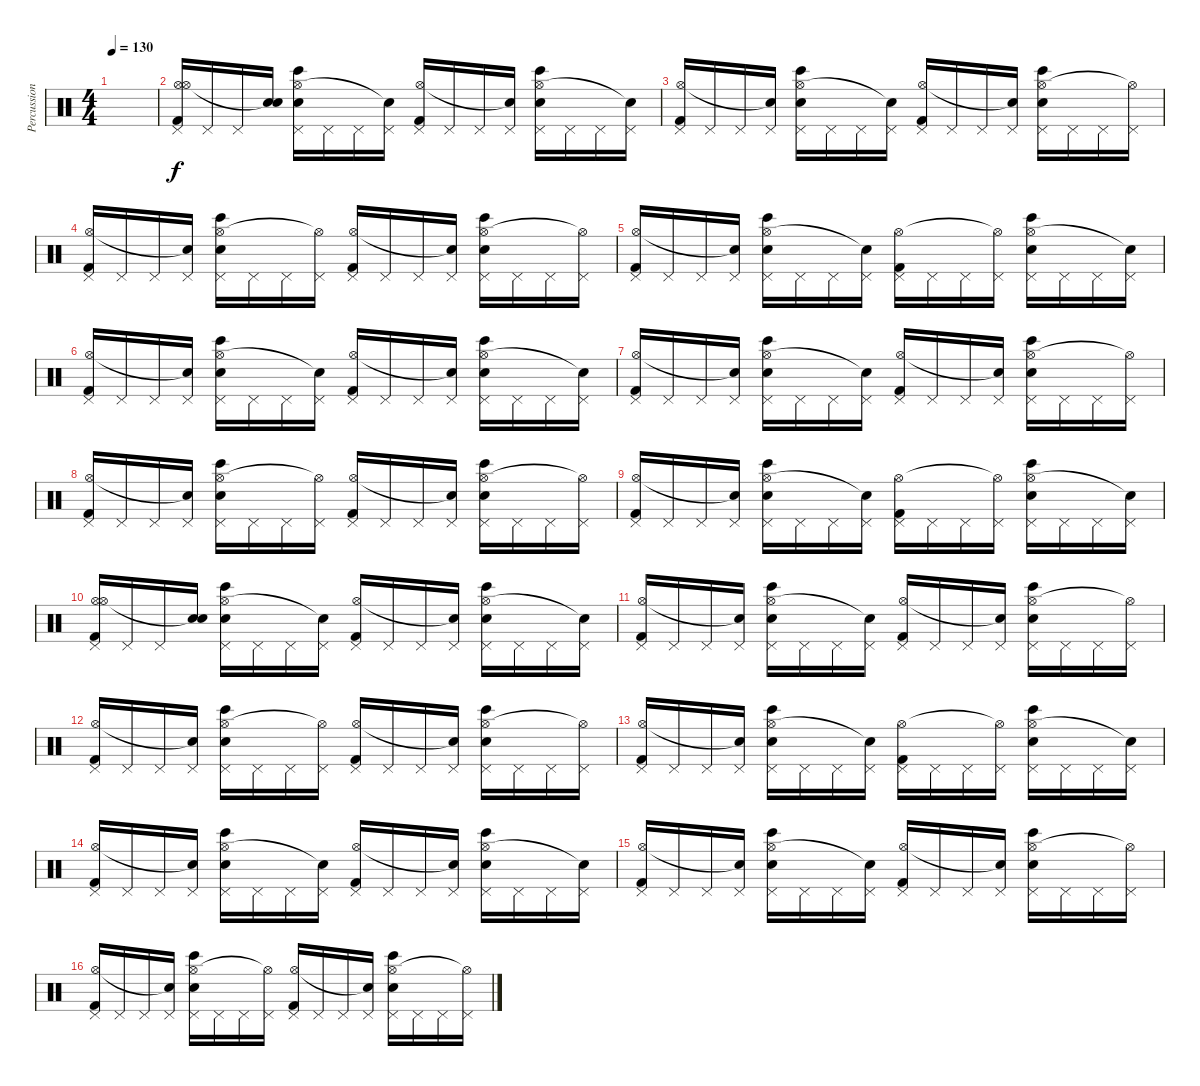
\track ("Percussion" "Percussion") {instrument percussion}
\staff {score}
\articulation defaults
\ts (4 4)
\tempo 130
\clef neutral
\ks c
|
("Pedal Hi-Hat (hit)" "Hi-Hat (open)" "Hi-Hat (open)" "Kick (hit) 2").16 "Pedal Hi-Hat (hit)".16 "Pedal Hi-Hat (hit)".16 ("Snare (hit)" "Snare (hit)"{t}).16 ("Pedal Hi-Hat (hit)" "Hi-Hat (open)" "Electric Snare (hit)" "Bongo High (hit)").16 "Pedal Hi-Hat (hit)".16 "Pedal Hi-Hat (hit)".16 ("Pedal Hi-Hat (hit)" "Snare (hit)"{t}).16 ("Pedal Hi-Hat (hit)" "Hi-Hat (open)" "Kick (hit) 2").16 "Pedal Hi-Hat (hit)".16 "Pedal Hi-Hat (hit)".16 ("Pedal Hi-Hat (hit)" "Snare (hit)"{t}).16 ("Pedal Hi-Hat (hit)" "Hi-Hat (open)" "Electric Snare (hit)" "Bongo High (hit)").16 "Pedal Hi-Hat (hit)".16 "Pedal Hi-Hat (hit)".16 ("Pedal Hi-Hat (hit)" "Snare (hit)"{t}).16 |
("Pedal Hi-Hat (hit)" "Hi-Hat (open)" "Kick (hit) 2").16 "Pedal Hi-Hat (hit)".16 "Pedal Hi-Hat (hit)".16 ("Pedal Hi-Hat (hit)" "Snare (hit)"{t}).16 ("Pedal Hi-Hat (hit)" "Hi-Hat (open)" "Electric Snare (hit)" "Bongo High (hit)").16 "Pedal Hi-Hat (hit)".16 "Pedal Hi-Hat (hit)".16 ("Pedal Hi-Hat (hit)" "Snare (hit)"{t}).16 ("Pedal Hi-Hat (hit)" "Hi-Hat (open)" "Kick (hit) 2").16 "Pedal Hi-Hat (hit)".16 "Pedal Hi-Hat (hit)".16 ("Pedal Hi-Hat (hit)" "Snare (hit)"{t}).16 ("Pedal Hi-Hat (hit)" "Hi-Hat (open)" "Electric Snare (hit)" "Bongo High (hit)").16 "Pedal Hi-Hat (hit)".16 "Pedal Hi-Hat (hit)".16 ("Pedal Hi-Hat (hit)" "Hi-Hat (open)"{t}).16 |
("Pedal Hi-Hat (hit)" "Hi-Hat (open)" "Kick (hit) 2").16 "Pedal Hi-Hat (hit)".16 "Pedal Hi-Hat (hit)".16 ("Pedal Hi-Hat (hit)" "Snare (hit)"{t}).16 ("Pedal Hi-Hat (hit)" "Hi-Hat (open)" "Electric Snare (hit)" "Bongo High (hit)").16 "Pedal Hi-Hat (hit)".16 "Pedal Hi-Hat (hit)".16 ("Pedal Hi-Hat (hit)" "Hi-Hat (open)"{t}).16 ("Pedal Hi-Hat (hit)" "Hi-Hat (open)" "Kick (hit) 2").16 "Pedal Hi-Hat (hit)".16 "Pedal Hi-Hat (hit)".16 ("Pedal Hi-Hat (hit)" "Snare (hit)"{t}).16 ("Pedal Hi-Hat (hit)" "Hi-Hat (open)" "Electric Snare (hit)" "Bongo High (hit)").16 "Pedal Hi-Hat (hit)".16 "Pedal Hi-Hat (hit)".16 ("Pedal Hi-Hat (hit)" "Hi-Hat (open)"{t}).16 |
("Pedal Hi-Hat (hit)" "Hi-Hat (open)" "Kick (hit) 2").16 "Pedal Hi-Hat (hit)".16 "Pedal Hi-Hat (hit)".16 ("Pedal Hi-Hat (hit)" "Snare (hit)"{t}).16 ("Pedal Hi-Hat (hit)" "Hi-Hat (open)" "Electric Snare (hit)" "Bongo High (hit)").16 "Pedal Hi-Hat (hit)".16 "Pedal Hi-Hat (hit)".16 ("Pedal Hi-Hat (hit)" "Snare (hit)"{t}).16 ("Pedal Hi-Hat (hit)" "Hi-Hat (open)" "Kick (hit) 2").16 "Pedal Hi-Hat (hit)".16 "Pedal Hi-Hat (hit)".16 ("Pedal Hi-Hat (hit)" "Hi-Hat (open)"{t}).16 ("Pedal Hi-Hat (hit)" "Hi-Hat (open)" "Electric Snare (hit)" "Bongo High (hit)").16 "Pedal Hi-Hat (hit)".16 "Pedal Hi-Hat (hit)".16 ("Pedal Hi-Hat (hit)" "Snare (hit)"{t}).16 |
("Pedal Hi-Hat (hit)" "Hi-Hat (open)" "Kick (hit) 2").16 "Pedal Hi-Hat (hit)".16 "Pedal Hi-Hat (hit)".16 ("Pedal Hi-Hat (hit)" "Snare (hit)"{t}).16 ("Pedal Hi-Hat (hit)" "Hi-Hat (open)" "Electric Snare (hit)" "Bongo High (hit)").16 "Pedal Hi-Hat (hit)".16 "Pedal Hi-Hat (hit)".16 ("Pedal Hi-Hat (hit)" "Snare (hit)"{t}).16 ("Pedal Hi-Hat (hit)" "Hi-Hat (open)" "Kick (hit) 2").16 "Pedal Hi-Hat (hit)".16 "Pedal Hi-Hat (hit)".16 ("Pedal Hi-Hat (hit)" "Snare (hit)"{t}).16 ("Pedal Hi-Hat (hit)" "Hi-Hat (open)" "Electric Snare (hit)" "Bongo High (hit)").16 "Pedal Hi-Hat (hit)".16 "Pedal Hi-Hat (hit)".16 ("Pedal Hi-Hat (hit)" "Snare (hit)"{t}).16 |
("Pedal Hi-Hat (hit)" "Hi-Hat (open)" "Kick (hit) 2").16 "Pedal Hi-Hat (hit)".16 "Pedal Hi-Hat (hit)".16 ("Pedal Hi-Hat (hit)" "Snare (hit)"{t}).16 ("Pedal Hi-Hat (hit)" "Hi-Hat (open)" "Electric Snare (hit)" "Bongo High (hit)").16 "Pedal Hi-Hat (hit)".16 "Pedal Hi-Hat (hit)".16 ("Pedal Hi-Hat (hit)" "Snare (hit)"{t}).16 ("Pedal Hi-Hat (hit)" "Hi-Hat (open)" "Kick (hit) 2").16 "Pedal Hi-Hat (hit)".16 "Pedal Hi-Hat (hit)".16 ("Pedal Hi-Hat (hit)" "Snare (hit)"{t}).16 ("Pedal Hi-Hat (hit)" "Hi-Hat (open)" "Electric Snare (hit)" "Bongo High (hit)").16 "Pedal Hi-Hat (hit)".16 "Pedal Hi-Hat (hit)".16 ("Pedal Hi-Hat (hit)" "Hi-Hat (open)"{t}).16 |
("Pedal Hi-Hat (hit)" "Hi-Hat (open)" "Kick (hit) 2").16 "Pedal Hi-Hat (hit)".16 "Pedal Hi-Hat (hit)".16 ("Pedal Hi-Hat (hit)" "Snare (hit)"{t}).16 ("Pedal Hi-Hat (hit)" "Hi-Hat (open)" "Electric Snare (hit)" "Bongo High (hit)").16 "Pedal Hi-Hat (hit)".16 "Pedal Hi-Hat (hit)".16 ("Pedal Hi-Hat (hit)" "Hi-Hat (open)"{t}).16 ("Pedal Hi-Hat (hit)" "Hi-Hat (open)" "Kick (hit) 2").16 "Pedal Hi-Hat (hit)".16 "Pedal Hi-Hat (hit)".16 ("Pedal Hi-Hat (hit)" "Snare (hit)"{t}).16 ("Pedal Hi-Hat (hit)" "Hi-Hat (open)" "Electric Snare (hit)" "Bongo High (hit)").16 "Pedal Hi-Hat (hit)".16 "Pedal Hi-Hat (hit)".16 ("Pedal Hi-Hat (hit)" "Hi-Hat (open)"{t}).16 |
("Pedal Hi-Hat (hit)" "Hi-Hat (open)" "Kick (hit) 2").16 "Pedal Hi-Hat (hit)".16 "Pedal Hi-Hat (hit)".16 ("Pedal Hi-Hat (hit)" "Snare (hit)"{t}).16 ("Pedal Hi-Hat (hit)" "Hi-Hat (open)" "Electric Snare (hit)" "Bongo High (hit)").16 "Pedal Hi-Hat (hit)".16 "Pedal Hi-Hat (hit)".16 ("Pedal Hi-Hat (hit)" "Snare (hit)"{t}).16 ("Pedal Hi-Hat (hit)" "Hi-Hat (open)" "Kick (hit) 2").16 "Pedal Hi-Hat (hit)".16 "Pedal Hi-Hat (hit)".16 ("Pedal Hi-Hat (hit)" "Hi-Hat (open)"{t}).16 ("Pedal Hi-Hat (hit)" "Hi-Hat (open)" "Electric Snare (hit)" "Bongo High (hit)").16 "Pedal Hi-Hat (hit)".16 "Pedal Hi-Hat (hit)".16 ("Pedal Hi-Hat (hit)" "Snare (hit)"{t}).16 |
("Pedal Hi-Hat (hit)" "Hi-Hat (open)" "Hi-Hat (open)" "Kick (hit) 2").16 "Pedal Hi-Hat (hit)".16 "Pedal Hi-Hat (hit)".16 ("Snare (hit)" "Snare (hit)"{t}).16 ("Pedal Hi-Hat (hit)" "Hi-Hat (open)" "Electric Snare (hit)" "Bongo High (hit)").16 "Pedal Hi-Hat (hit)".16 "Pedal Hi-Hat (hit)".16 ("Pedal Hi-Hat (hit)" "Snare (hit)"{t}).16 ("Pedal Hi-Hat (hit)" "Hi-Hat (open)" "Kick (hit) 2").16 "Pedal Hi-Hat (hit)".16 "Pedal Hi-Hat (hit)".16 ("Pedal Hi-Hat (hit)" "Snare (hit)"{t}).16 ("Pedal Hi-Hat (hit)" "Hi-Hat (open)" "Electric Snare (hit)" "Bongo High (hit)").16 "Pedal Hi-Hat (hit)".16 "Pedal Hi-Hat (hit)".16 ("Pedal Hi-Hat (hit)" "Snare (hit)"{t}).16 |
("Pedal Hi-Hat (hit)" "Hi-Hat (open)" "Kick (hit) 2").16 "Pedal Hi-Hat (hit)".16 "Pedal Hi-Hat (hit)".16 ("Pedal Hi-Hat (hit)" "Snare (hit)"{t}).16 ("Pedal Hi-Hat (hit)" "Hi-Hat (open)" "Electric Snare (hit)" "Bongo High (hit)").16 "Pedal Hi-Hat (hit)".16 "Pedal Hi-Hat (hit)".16 ("Pedal Hi-Hat (hit)" "Snare (hit)"{t}).16 ("Pedal Hi-Hat (hit)" "Hi-Hat (open)" "Kick (hit) 2").16 "Pedal Hi-Hat (hit)".16 "Pedal Hi-Hat (hit)".16 ("Pedal Hi-Hat (hit)" "Snare (hit)"{t}).16 ("Pedal Hi-Hat (hit)" "Hi-Hat (open)" "Electric Snare (hit)" "Bongo High (hit)").16 "Pedal Hi-Hat (hit)".16 "Pedal Hi-Hat (hit)".16 ("Pedal Hi-Hat (hit)" "Hi-Hat (open)"{t}).16 |
("Pedal Hi-Hat (hit)" "Hi-Hat (open)" "Kick (hit) 2").16 "Pedal Hi-Hat (hit)".16 "Pedal Hi-Hat (hit)".16 ("Pedal Hi-Hat (hit)" "Snare (hit)"{t}).16 ("Pedal Hi-Hat (hit)" "Hi-Hat (open)" "Electric Snare (hit)" "Bongo High (hit)").16 "Pedal Hi-Hat (hit)".16 "Pedal Hi-Hat (hit)".16 ("Pedal Hi-Hat (hit)" "Hi-Hat (open)"{t}).16 ("Pedal Hi-Hat (hit)" "Hi-Hat (open)" "Kick (hit) 2").16 "Pedal Hi-Hat (hit)".16 "Pedal Hi-Hat (hit)".16 ("Pedal Hi-Hat (hit)" "Snare (hit)"{t}).16 ("Pedal Hi-Hat (hit)" "Hi-Hat (open)" "Electric Snare (hit)" "Bongo High (hit)").16 "Pedal Hi-Hat (hit)".16 "Pedal Hi-Hat (hit)".16 ("Pedal Hi-Hat (hit)" "Hi-Hat (open)"{t}).16 |
("Pedal Hi-Hat (hit)" "Hi-Hat (open)" "Kick (hit) 2").16 "Pedal Hi-Hat (hit)".16 "Pedal Hi-Hat (hit)".16 ("Pedal Hi-Hat (hit)" "Snare (hit)"{t}).16 ("Pedal Hi-Hat (hit)" "Hi-Hat (open)" "Electric Snare (hit)" "Bongo High (hit)").16 "Pedal Hi-Hat (hit)".16 "Pedal Hi-Hat (hit)".16 ("Pedal Hi-Hat (hit)" "Snare (hit)"{t}).16 ("Pedal Hi-Hat (hit)" "Hi-Hat (open)" "Kick (hit) 2").16 "Pedal Hi-Hat (hit)".16 "Pedal Hi-Hat (hit)".16 ("Pedal Hi-Hat (hit)" "Hi-Hat (open)"{t}).16 ("Pedal Hi-Hat (hit)" "Hi-Hat (open)" "Electric Snare (hit)" "Bongo High (hit)").16 "Pedal Hi-Hat (hit)".16 "Pedal Hi-Hat (hit)".16 ("Pedal Hi-Hat (hit)" "Snare (hit)"{t}).16 |
("Pedal Hi-Hat (hit)" "Hi-Hat (open)" "Kick (hit) 2").16 "Pedal Hi-Hat (hit)".16 "Pedal Hi-Hat (hit)".16 ("Pedal Hi-Hat (hit)" "Snare (hit)"{t}).16 ("Pedal Hi-Hat (hit)" "Hi-Hat (open)" "Electric Snare (hit)" "Bongo High (hit)").16 "Pedal Hi-Hat (hit)".16 "Pedal Hi-Hat (hit)".16 ("Pedal Hi-Hat (hit)" "Snare (hit)"{t}).16 ("Pedal Hi-Hat (hit)" "Hi-Hat (open)" "Kick (hit) 2").16 "Pedal Hi-Hat (hit)".16 "Pedal Hi-Hat (hit)".16 ("Pedal Hi-Hat (hit)" "Snare (hit)"{t}).16 ("Pedal Hi-Hat (hit)" "Hi-Hat (open)" "Electric Snare (hit)" "Bongo High (hit)").16 "Pedal Hi-Hat (hit)".16 "Pedal Hi-Hat (hit)".16 ("Pedal Hi-Hat (hit)" "Snare (hit)"{t}).16 |
("Pedal Hi-Hat (hit)" "Hi-Hat (open)" "Kick (hit) 2").16 "Pedal Hi-Hat (hit)".16 "Pedal Hi-Hat (hit)".16 ("Pedal Hi-Hat (hit)" "Snare (hit)"{t}).16 ("Pedal Hi-Hat (hit)" "Hi-Hat (open)" "Electric Snare (hit)" "Bongo High (hit)").16 "Pedal Hi-Hat (hit)".16 "Pedal Hi-Hat (hit)".16 ("Pedal Hi-Hat (hit)" "Snare (hit)"{t}).16 ("Pedal Hi-Hat (hit)" "Hi-Hat (open)" "Kick (hit) 2").16 "Pedal Hi-Hat (hit)".16 "Pedal Hi-Hat (hit)".16 ("Pedal Hi-Hat (hit)" "Snare (hit)"{t}).16 ("Pedal Hi-Hat (hit)" "Hi-Hat (open)" "Electric Snare (hit)" "Bongo High (hit)").16 "Pedal Hi-Hat (hit)".16 "Pedal Hi-Hat (hit)".16 ("Pedal Hi-Hat (hit)" "Hi-Hat (open)"{t}).16 |
("Pedal Hi-Hat (hit)" "Hi-Hat (open)" "Kick (hit) 2").16 "Pedal Hi-Hat (hit)".16 "Pedal Hi-Hat (hit)".16 ("Pedal Hi-Hat (hit)" "Snare (hit)"{t}).16 ("Pedal Hi-Hat (hit)" "Hi-Hat (open)" "Electric Snare (hit)" "Bongo High (hit)").16 "Pedal Hi-Hat (hit)".16 "Pedal Hi-Hat (hit)".16 ("Pedal Hi-Hat (hit)" "Hi-Hat (open)"{t}).16 ("Pedal Hi-Hat (hit)" "Hi-Hat (open)" "Kick (hit) 2").16 "Pedal Hi-Hat (hit)".16 "Pedal Hi-Hat (hit)".16 ("Pedal Hi-Hat (hit)" "Snare (hit)"{t}).16 ("Pedal Hi-Hat (hit)" "Hi-Hat (open)" "Electric Snare (hit)" "Bongo High (hit)").16 "Pedal Hi-Hat (hit)".16 "Pedal Hi-Hat (hit)".16 ("Pedal Hi-Hat (hit)" "Hi-Hat (open)"{t}).16
